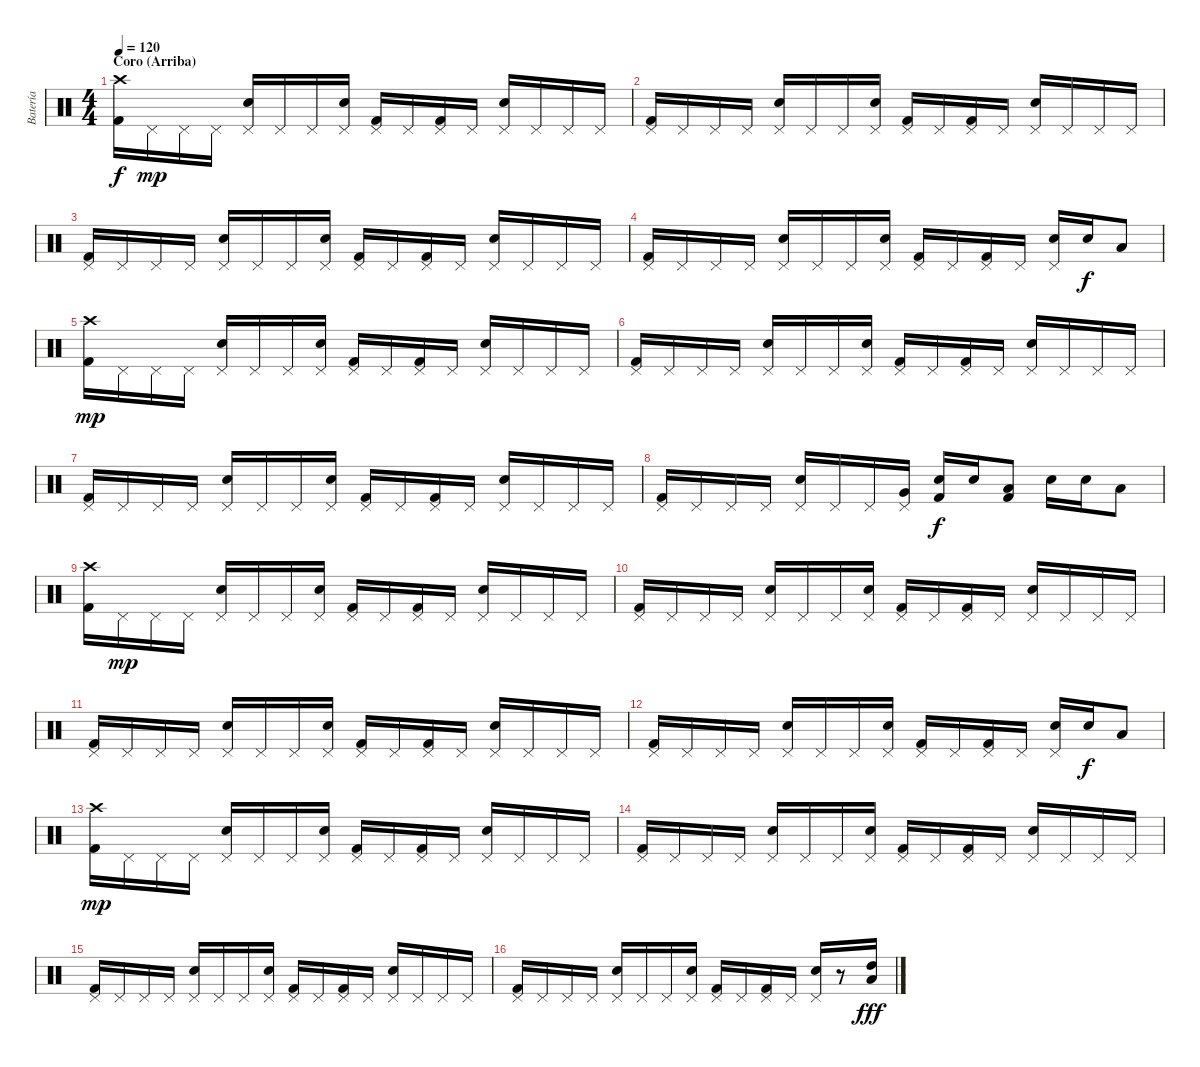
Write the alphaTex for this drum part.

\track ("Batería" "Batería") {instrument percussion}
\staff {score}
\articulation defaults
\ts (4 4)
\section ("" "Coro (Arriba)")
\tempo 120
\clef neutral
\ks c
("Crash high (hit)" "Kick (hit) 2").16{dy f} "Pedal Hi-Hat (hit)".16{dy mp} "Pedal Hi-Hat (hit)".16 "Pedal Hi-Hat (hit)".16 ("Pedal Hi-Hat (hit)" "Snare (hit) 2").16 "Pedal Hi-Hat (hit)".16 "Pedal Hi-Hat (hit)".16 ("Pedal Hi-Hat (hit)" "Snare (hit) 2").16 ("Pedal Hi-Hat (hit)" "Kick (hit) 2").16 "Pedal Hi-Hat (hit)".16 ("Pedal Hi-Hat (hit)" "Kick (hit) 2").16 "Pedal Hi-Hat (hit)".16 ("Pedal Hi-Hat (hit)" "Snare (hit) 2").16 "Pedal Hi-Hat (hit)".16 "Pedal Hi-Hat (hit)".16 "Pedal Hi-Hat (hit)".16 |
("Pedal Hi-Hat (hit)" "Kick (hit) 2").16 "Pedal Hi-Hat (hit)".16 "Pedal Hi-Hat (hit)".16 "Pedal Hi-Hat (hit)".16 ("Pedal Hi-Hat (hit)" "Snare (hit) 2").16 "Pedal Hi-Hat (hit)".16 "Pedal Hi-Hat (hit)".16 ("Pedal Hi-Hat (hit)" "Snare (hit) 2").16 ("Pedal Hi-Hat (hit)" "Kick (hit) 2").16 "Pedal Hi-Hat (hit)".16 ("Pedal Hi-Hat (hit)" "Kick (hit) 2").16 "Pedal Hi-Hat (hit)".16 ("Pedal Hi-Hat (hit)" "Snare (hit) 2").16 "Pedal Hi-Hat (hit)".16 "Pedal Hi-Hat (hit)".16 "Pedal Hi-Hat (hit)".16 |
("Pedal Hi-Hat (hit)" "Kick (hit) 2").16 "Pedal Hi-Hat (hit)".16 "Pedal Hi-Hat (hit)".16 "Pedal Hi-Hat (hit)".16 ("Pedal Hi-Hat (hit)" "Snare (hit) 2").16 "Pedal Hi-Hat (hit)".16 "Pedal Hi-Hat (hit)".16 ("Pedal Hi-Hat (hit)" "Snare (hit) 2").16 ("Pedal Hi-Hat (hit)" "Kick (hit) 2").16 "Pedal Hi-Hat (hit)".16 ("Pedal Hi-Hat (hit)" "Kick (hit) 2").16 "Pedal Hi-Hat (hit)".16 ("Pedal Hi-Hat (hit)" "Snare (hit) 2").16 "Pedal Hi-Hat (hit)".16 "Pedal Hi-Hat (hit)".16 "Pedal Hi-Hat (hit)".16 |
("Pedal Hi-Hat (hit)" "Kick (hit) 2").16 "Pedal Hi-Hat (hit)".16 "Pedal Hi-Hat (hit)".16 "Pedal Hi-Hat (hit)".16 ("Pedal Hi-Hat (hit)" "Snare (hit) 2").16 "Pedal Hi-Hat (hit)".16 "Pedal Hi-Hat (hit)".16 ("Pedal Hi-Hat (hit)" "Snare (hit) 2").16 ("Pedal Hi-Hat (hit)" "Kick (hit) 2").16 "Pedal Hi-Hat (hit)".16 ("Pedal Hi-Hat (hit)" "Kick (hit) 2").16 "Pedal Hi-Hat (hit)".16 ("Pedal Hi-Hat (hit)" "Snare (hit) 2").16 "Snare (hit) 2".16{dy f} "Low Tom (hit)".8 |
("Crash high (hit)" "Kick (hit) 2").16{dy mp} "Pedal Hi-Hat (hit)".16 "Pedal Hi-Hat (hit)".16 "Pedal Hi-Hat (hit)".16 ("Pedal Hi-Hat (hit)" "Snare (hit) 2").16 "Pedal Hi-Hat (hit)".16 "Pedal Hi-Hat (hit)".16 ("Pedal Hi-Hat (hit)" "Snare (hit) 2").16 ("Pedal Hi-Hat (hit)" "Kick (hit) 2").16 "Pedal Hi-Hat (hit)".16 ("Pedal Hi-Hat (hit)" "Kick (hit) 2").16 "Pedal Hi-Hat (hit)".16 ("Pedal Hi-Hat (hit)" "Snare (hit) 2").16 "Pedal Hi-Hat (hit)".16 "Pedal Hi-Hat (hit)".16 "Pedal Hi-Hat (hit)".16 |
("Pedal Hi-Hat (hit)" "Kick (hit) 2").16 "Pedal Hi-Hat (hit)".16 "Pedal Hi-Hat (hit)".16 "Pedal Hi-Hat (hit)".16 ("Pedal Hi-Hat (hit)" "Snare (hit) 2").16 "Pedal Hi-Hat (hit)".16 "Pedal Hi-Hat (hit)".16 ("Pedal Hi-Hat (hit)" "Snare (hit) 2").16 ("Pedal Hi-Hat (hit)" "Kick (hit) 2").16 "Pedal Hi-Hat (hit)".16 ("Pedal Hi-Hat (hit)" "Kick (hit) 2").16 "Pedal Hi-Hat (hit)".16 ("Pedal Hi-Hat (hit)" "Snare (hit) 2").16 "Pedal Hi-Hat (hit)".16 "Pedal Hi-Hat (hit)".16 "Pedal Hi-Hat (hit)".16 |
("Pedal Hi-Hat (hit)" "Kick (hit) 2").16 "Pedal Hi-Hat (hit)".16 "Pedal Hi-Hat (hit)".16 "Pedal Hi-Hat (hit)".16 ("Pedal Hi-Hat (hit)" "Snare (hit) 2").16 "Pedal Hi-Hat (hit)".16 "Pedal Hi-Hat (hit)".16 ("Pedal Hi-Hat (hit)" "Snare (hit) 2").16 ("Pedal Hi-Hat (hit)" "Kick (hit) 2").16 "Pedal Hi-Hat (hit)".16 ("Pedal Hi-Hat (hit)" "Kick (hit) 2").16 "Pedal Hi-Hat (hit)".16 ("Pedal Hi-Hat (hit)" "Snare (hit) 2").16 "Pedal Hi-Hat (hit)".16 "Pedal Hi-Hat (hit)".16 "Pedal Hi-Hat (hit)".16 |
("Pedal Hi-Hat (hit)" "Kick (hit) 2").16 "Pedal Hi-Hat (hit)".16 "Pedal Hi-Hat (hit)".16 "Pedal Hi-Hat (hit)".16 ("Pedal Hi-Hat (hit)" "Snare (hit) 2").16 "Pedal Hi-Hat (hit)".16 "Pedal Hi-Hat (hit)".16 ("Pedal Hi-Hat (hit)" "Very Low Tom (hit)").16 ("Snare (hit) 2" "Kick (hit) 2").16{dy f} "Snare (hit) 2".16 ("Low Tom (hit)" "Kick (hit) 2").8 "Snare (hit) 2".16 "Snare (hit) 2".16 "Low Tom (hit)".8 |
("Crash high (hit)" "Kick (hit) 2").16 "Pedal Hi-Hat (hit)".16{dy mp} "Pedal Hi-Hat (hit)".16 "Pedal Hi-Hat (hit)".16 ("Pedal Hi-Hat (hit)" "Snare (hit) 2").16 "Pedal Hi-Hat (hit)".16 "Pedal Hi-Hat (hit)".16 ("Pedal Hi-Hat (hit)" "Snare (hit) 2").16 ("Pedal Hi-Hat (hit)" "Kick (hit) 2").16 "Pedal Hi-Hat (hit)".16 ("Pedal Hi-Hat (hit)" "Kick (hit) 2").16 "Pedal Hi-Hat (hit)".16 ("Pedal Hi-Hat (hit)" "Snare (hit) 2").16 "Pedal Hi-Hat (hit)".16 "Pedal Hi-Hat (hit)".16 "Pedal Hi-Hat (hit)".16 |
("Pedal Hi-Hat (hit)" "Kick (hit) 2").16 "Pedal Hi-Hat (hit)".16 "Pedal Hi-Hat (hit)".16 "Pedal Hi-Hat (hit)".16 ("Pedal Hi-Hat (hit)" "Snare (hit) 2").16 "Pedal Hi-Hat (hit)".16 "Pedal Hi-Hat (hit)".16 ("Pedal Hi-Hat (hit)" "Snare (hit) 2").16 ("Pedal Hi-Hat (hit)" "Kick (hit) 2").16 "Pedal Hi-Hat (hit)".16 ("Pedal Hi-Hat (hit)" "Kick (hit) 2").16 "Pedal Hi-Hat (hit)".16 ("Pedal Hi-Hat (hit)" "Snare (hit) 2").16 "Pedal Hi-Hat (hit)".16 "Pedal Hi-Hat (hit)".16 "Pedal Hi-Hat (hit)".16 |
("Pedal Hi-Hat (hit)" "Kick (hit) 2").16 "Pedal Hi-Hat (hit)".16 "Pedal Hi-Hat (hit)".16 "Pedal Hi-Hat (hit)".16 ("Pedal Hi-Hat (hit)" "Snare (hit) 2").16 "Pedal Hi-Hat (hit)".16 "Pedal Hi-Hat (hit)".16 ("Pedal Hi-Hat (hit)" "Snare (hit) 2").16 ("Pedal Hi-Hat (hit)" "Kick (hit) 2").16 "Pedal Hi-Hat (hit)".16 ("Pedal Hi-Hat (hit)" "Kick (hit) 2").16 "Pedal Hi-Hat (hit)".16 ("Pedal Hi-Hat (hit)" "Snare (hit) 2").16 "Pedal Hi-Hat (hit)".16 "Pedal Hi-Hat (hit)".16 "Pedal Hi-Hat (hit)".16 |
("Pedal Hi-Hat (hit)" "Kick (hit) 2").16 "Pedal Hi-Hat (hit)".16 "Pedal Hi-Hat (hit)".16 "Pedal Hi-Hat (hit)".16 ("Pedal Hi-Hat (hit)" "Snare (hit) 2").16 "Pedal Hi-Hat (hit)".16 "Pedal Hi-Hat (hit)".16 ("Pedal Hi-Hat (hit)" "Snare (hit) 2").16 ("Pedal Hi-Hat (hit)" "Kick (hit) 2").16 "Pedal Hi-Hat (hit)".16 ("Pedal Hi-Hat (hit)" "Kick (hit) 2").16 "Pedal Hi-Hat (hit)".16 ("Pedal Hi-Hat (hit)" "Snare (hit) 2").16 "Snare (hit) 2".16{dy f} "Low Tom (hit)".8 |
("Crash high (hit)" "Kick (hit) 2").16{dy mp} "Pedal Hi-Hat (hit)".16 "Pedal Hi-Hat (hit)".16 "Pedal Hi-Hat (hit)".16 ("Pedal Hi-Hat (hit)" "Snare (hit) 2").16 "Pedal Hi-Hat (hit)".16 "Pedal Hi-Hat (hit)".16 ("Pedal Hi-Hat (hit)" "Snare (hit) 2").16 ("Pedal Hi-Hat (hit)" "Kick (hit) 2").16 "Pedal Hi-Hat (hit)".16 ("Pedal Hi-Hat (hit)" "Kick (hit) 2").16 "Pedal Hi-Hat (hit)".16 ("Pedal Hi-Hat (hit)" "Snare (hit) 2").16 "Pedal Hi-Hat (hit)".16 "Pedal Hi-Hat (hit)".16 "Pedal Hi-Hat (hit)".16 |
("Pedal Hi-Hat (hit)" "Kick (hit) 2").16 "Pedal Hi-Hat (hit)".16 "Pedal Hi-Hat (hit)".16 "Pedal Hi-Hat (hit)".16 ("Pedal Hi-Hat (hit)" "Snare (hit) 2").16 "Pedal Hi-Hat (hit)".16 "Pedal Hi-Hat (hit)".16 ("Pedal Hi-Hat (hit)" "Snare (hit) 2").16 ("Pedal Hi-Hat (hit)" "Kick (hit) 2").16 "Pedal Hi-Hat (hit)".16 ("Pedal Hi-Hat (hit)" "Kick (hit) 2").16 "Pedal Hi-Hat (hit)".16 ("Pedal Hi-Hat (hit)" "Snare (hit) 2").16 "Pedal Hi-Hat (hit)".16 "Pedal Hi-Hat (hit)".16 "Pedal Hi-Hat (hit)".16 |
("Pedal Hi-Hat (hit)" "Kick (hit) 2").16 "Pedal Hi-Hat (hit)".16 "Pedal Hi-Hat (hit)".16 "Pedal Hi-Hat (hit)".16 ("Pedal Hi-Hat (hit)" "Snare (hit) 2").16 "Pedal Hi-Hat (hit)".16 "Pedal Hi-Hat (hit)".16 ("Pedal Hi-Hat (hit)" "Snare (hit) 2").16 ("Pedal Hi-Hat (hit)" "Kick (hit) 2").16 "Pedal Hi-Hat (hit)".16 ("Pedal Hi-Hat (hit)" "Kick (hit) 2").16 "Pedal Hi-Hat (hit)".16 ("Pedal Hi-Hat (hit)" "Snare (hit) 2").16 "Pedal Hi-Hat (hit)".16 "Pedal Hi-Hat (hit)".16 "Pedal Hi-Hat (hit)".16 |
("Pedal Hi-Hat (hit)" "Kick (hit) 2").16 "Pedal Hi-Hat (hit)".16 "Pedal Hi-Hat (hit)".16 "Pedal Hi-Hat (hit)".16 ("Pedal Hi-Hat (hit)" "Snare (hit) 2").16 "Pedal Hi-Hat (hit)".16 "Pedal Hi-Hat (hit)".16 ("Pedal Hi-Hat (hit)" "Snare (hit) 2").16 ("Pedal Hi-Hat (hit)" "Kick (hit) 2").16 "Pedal Hi-Hat (hit)".16 ("Pedal Hi-Hat (hit)" "Kick (hit) 2").16 "Pedal Hi-Hat (hit)".16 ("Pedal Hi-Hat (hit)" "Snare (hit) 2").16 r.8 ("High Tom (hit)" "Low Tom (hit)").16{dy fff}
